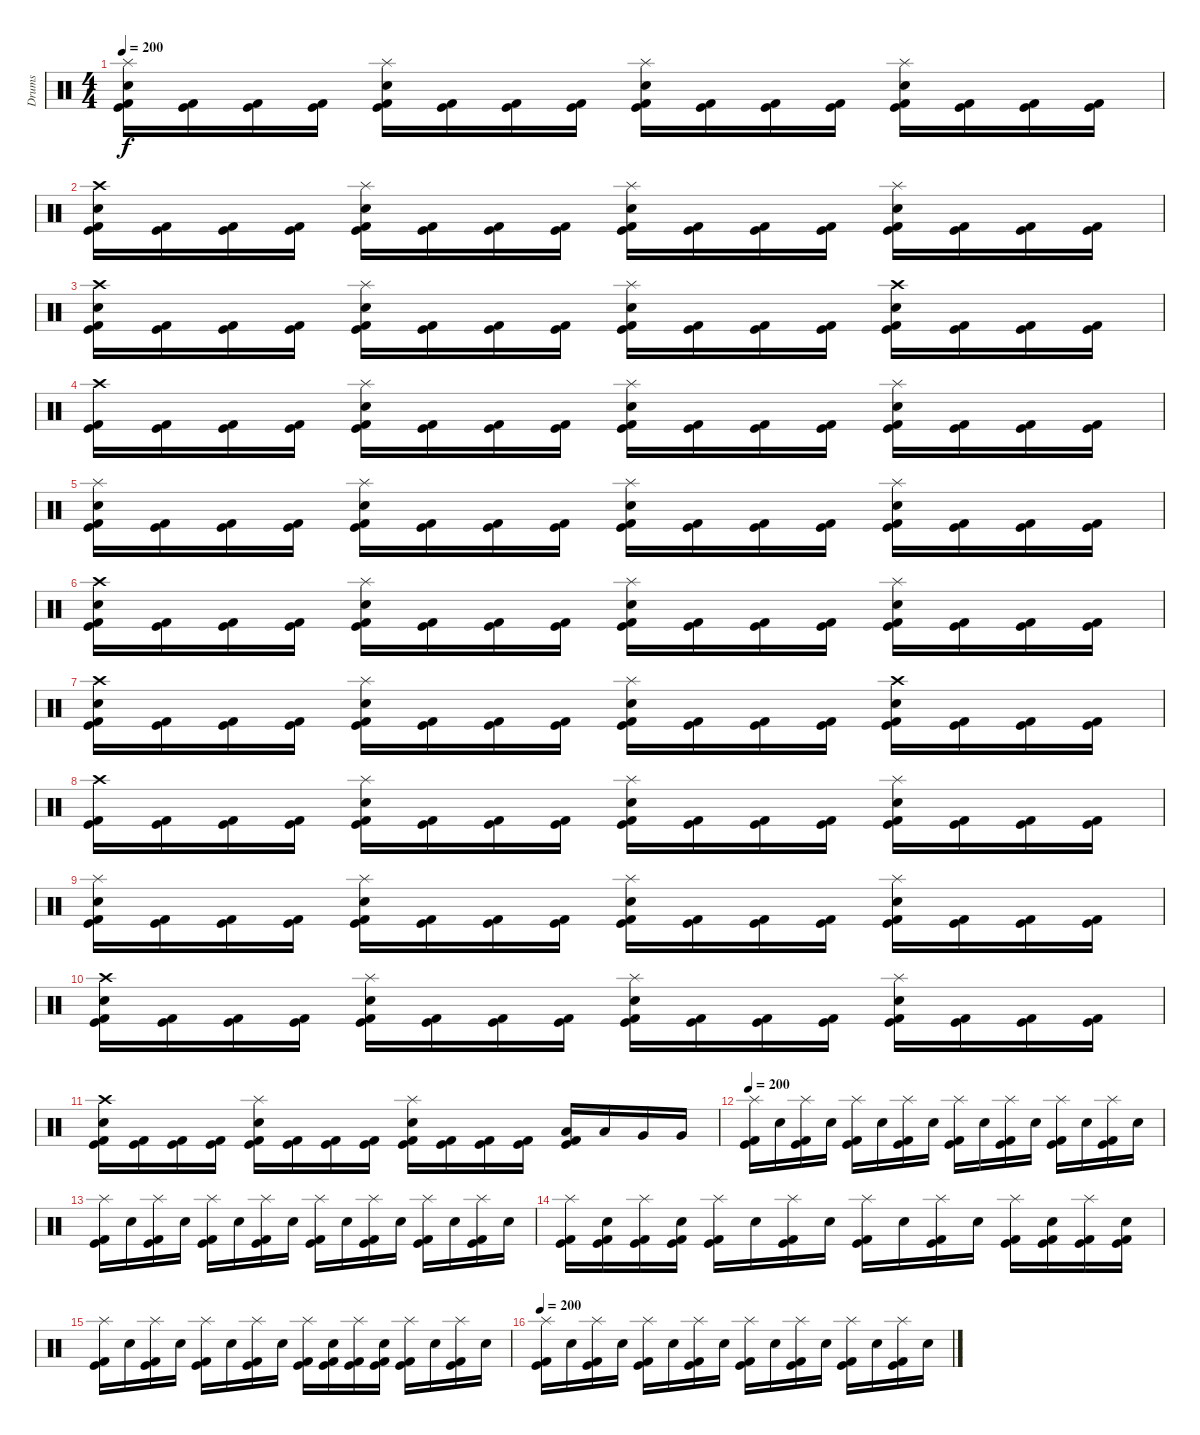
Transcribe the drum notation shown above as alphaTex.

\track ("Drums" "Drums") {instrument percussion}
\staff {score}
\articulation defaults
\ts (4 4)
\tempo 200
\clef neutral
\ks c
("Splash (hit)" "Electric Snare (hit)" "Kick (hit)" "Kick (hit) 2").16{dy f} ("Kick (hit)" "Kick (hit) 2").16 ("Kick (hit)" "Kick (hit) 2").16 ("Kick (hit)" "Kick (hit) 2").16 ("Splash (hit)" "Electric Snare (hit)" "Kick (hit)" "Kick (hit) 2").16 ("Kick (hit)" "Kick (hit) 2").16 ("Kick (hit)" "Kick (hit) 2").16 ("Kick (hit)" "Kick (hit) 2").16 ("Splash (hit)" "Electric Snare (hit)" "Kick (hit)" "Kick (hit) 2").16 ("Kick (hit)" "Kick (hit) 2").16 ("Kick (hit)" "Kick (hit) 2").16 ("Kick (hit)" "Kick (hit) 2").16 ("Splash (hit)" "Electric Snare (hit)" "Kick (hit)" "Kick (hit) 2").16 ("Kick (hit)" "Kick (hit) 2").16 ("Kick (hit)" "Kick (hit) 2").16 ("Kick (hit)" "Kick (hit) 2").16 |
("Crash high (hit)" "Electric Snare (hit)" "Kick (hit)" "Kick (hit) 2").16 ("Kick (hit)" "Kick (hit) 2").16 ("Kick (hit)" "Kick (hit) 2").16 ("Kick (hit)" "Kick (hit) 2").16 ("Splash (hit)" "Electric Snare (hit)" "Kick (hit)" "Kick (hit) 2").16 ("Kick (hit)" "Kick (hit) 2").16 ("Kick (hit)" "Kick (hit) 2").16 ("Kick (hit)" "Kick (hit) 2").16 ("Splash (hit)" "Electric Snare (hit)" "Kick (hit)" "Kick (hit) 2").16 ("Kick (hit)" "Kick (hit) 2").16 ("Kick (hit)" "Kick (hit) 2").16 ("Kick (hit)" "Kick (hit) 2").16 ("Splash (hit)" "Electric Snare (hit)" "Kick (hit)" "Kick (hit) 2").16 ("Kick (hit)" "Kick (hit) 2").16 ("Kick (hit)" "Kick (hit) 2").16 ("Kick (hit)" "Kick (hit) 2").16 |
("Crash high (hit)" "Electric Snare (hit)" "Kick (hit)" "Kick (hit) 2").16 ("Kick (hit)" "Kick (hit) 2").16 ("Kick (hit)" "Kick (hit) 2").16 ("Kick (hit)" "Kick (hit) 2").16 ("Splash (hit)" "Electric Snare (hit)" "Kick (hit)" "Kick (hit) 2").16 ("Kick (hit)" "Kick (hit) 2").16 ("Kick (hit)" "Kick (hit) 2").16 ("Kick (hit)" "Kick (hit) 2").16 ("Splash (hit)" "Electric Snare (hit)" "Kick (hit)" "Kick (hit) 2").16 ("Kick (hit)" "Kick (hit) 2").16 ("Kick (hit)" "Kick (hit) 2").16 ("Kick (hit)" "Kick (hit) 2").16 ("Crash high (hit)" "Electric Snare (hit)" "Kick (hit)" "Kick (hit) 2").16 ("Kick (hit)" "Kick (hit) 2").16 ("Kick (hit)" "Kick (hit) 2").16 ("Kick (hit)" "Kick (hit) 2").16 |
("Crash high (hit)" "Kick (hit)" "Kick (hit) 2").16 ("Kick (hit)" "Kick (hit) 2").16 ("Kick (hit)" "Kick (hit) 2").16 ("Kick (hit)" "Kick (hit) 2").16 ("Splash (hit)" "Electric Snare (hit)" "Kick (hit)" "Kick (hit) 2").16 ("Kick (hit)" "Kick (hit) 2").16 ("Kick (hit)" "Kick (hit) 2").16 ("Kick (hit)" "Kick (hit) 2").16 ("Splash (hit)" "Electric Snare (hit)" "Kick (hit)" "Kick (hit) 2").16 ("Kick (hit)" "Kick (hit) 2").16 ("Kick (hit)" "Kick (hit) 2").16 ("Kick (hit)" "Kick (hit) 2").16 ("Splash (hit)" "Electric Snare (hit)" "Kick (hit)" "Kick (hit) 2").16 ("Kick (hit)" "Kick (hit) 2").16 ("Kick (hit)" "Kick (hit) 2").16 ("Kick (hit)" "Kick (hit) 2").16 |
("Splash (hit)" "Electric Snare (hit)" "Kick (hit)" "Kick (hit) 2").16 ("Kick (hit)" "Kick (hit) 2").16 ("Kick (hit)" "Kick (hit) 2").16 ("Kick (hit)" "Kick (hit) 2").16 ("Splash (hit)" "Electric Snare (hit)" "Kick (hit)" "Kick (hit) 2").16 ("Kick (hit)" "Kick (hit) 2").16 ("Kick (hit)" "Kick (hit) 2").16 ("Kick (hit)" "Kick (hit) 2").16 ("Splash (hit)" "Electric Snare (hit)" "Kick (hit)" "Kick (hit) 2").16 ("Kick (hit)" "Kick (hit) 2").16 ("Kick (hit)" "Kick (hit) 2").16 ("Kick (hit)" "Kick (hit) 2").16 ("Splash (hit)" "Electric Snare (hit)" "Kick (hit)" "Kick (hit) 2").16 ("Kick (hit)" "Kick (hit) 2").16 ("Kick (hit)" "Kick (hit) 2").16 ("Kick (hit)" "Kick (hit) 2").16 |
("Crash high (hit)" "Electric Snare (hit)" "Kick (hit)" "Kick (hit) 2").16 ("Kick (hit)" "Kick (hit) 2").16 ("Kick (hit)" "Kick (hit) 2").16 ("Kick (hit)" "Kick (hit) 2").16 ("Splash (hit)" "Electric Snare (hit)" "Kick (hit)" "Kick (hit) 2").16 ("Kick (hit)" "Kick (hit) 2").16 ("Kick (hit)" "Kick (hit) 2").16 ("Kick (hit)" "Kick (hit) 2").16 ("Splash (hit)" "Electric Snare (hit)" "Kick (hit)" "Kick (hit) 2").16 ("Kick (hit)" "Kick (hit) 2").16 ("Kick (hit)" "Kick (hit) 2").16 ("Kick (hit)" "Kick (hit) 2").16 ("Splash (hit)" "Electric Snare (hit)" "Kick (hit)" "Kick (hit) 2").16 ("Kick (hit)" "Kick (hit) 2").16 ("Kick (hit)" "Kick (hit) 2").16 ("Kick (hit)" "Kick (hit) 2").16 |
("Crash high (hit)" "Electric Snare (hit)" "Kick (hit)" "Kick (hit) 2").16 ("Kick (hit)" "Kick (hit) 2").16 ("Kick (hit)" "Kick (hit) 2").16 ("Kick (hit)" "Kick (hit) 2").16 ("Splash (hit)" "Electric Snare (hit)" "Kick (hit)" "Kick (hit) 2").16 ("Kick (hit)" "Kick (hit) 2").16 ("Kick (hit)" "Kick (hit) 2").16 ("Kick (hit)" "Kick (hit) 2").16 ("Splash (hit)" "Electric Snare (hit)" "Kick (hit)" "Kick (hit) 2").16 ("Kick (hit)" "Kick (hit) 2").16 ("Kick (hit)" "Kick (hit) 2").16 ("Kick (hit)" "Kick (hit) 2").16 ("Crash high (hit)" "Electric Snare (hit)" "Kick (hit)" "Kick (hit) 2").16 ("Kick (hit)" "Kick (hit) 2").16 ("Kick (hit)" "Kick (hit) 2").16 ("Kick (hit)" "Kick (hit) 2").16 |
("Crash high (hit)" "Kick (hit)" "Kick (hit) 2").16 ("Kick (hit)" "Kick (hit) 2").16 ("Kick (hit)" "Kick (hit) 2").16 ("Kick (hit)" "Kick (hit) 2").16 ("Splash (hit)" "Electric Snare (hit)" "Kick (hit)" "Kick (hit) 2").16 ("Kick (hit)" "Kick (hit) 2").16 ("Kick (hit)" "Kick (hit) 2").16 ("Kick (hit)" "Kick (hit) 2").16 ("Splash (hit)" "Electric Snare (hit)" "Kick (hit)" "Kick (hit) 2").16 ("Kick (hit)" "Kick (hit) 2").16 ("Kick (hit)" "Kick (hit) 2").16 ("Kick (hit)" "Kick (hit) 2").16 ("Splash (hit)" "Electric Snare (hit)" "Kick (hit)" "Kick (hit) 2").16 ("Kick (hit)" "Kick (hit) 2").16 ("Kick (hit)" "Kick (hit) 2").16 ("Kick (hit)" "Kick (hit) 2").16 |
("Splash (hit)" "Electric Snare (hit)" "Kick (hit)" "Kick (hit) 2").16 ("Kick (hit)" "Kick (hit) 2").16 ("Kick (hit)" "Kick (hit) 2").16 ("Kick (hit)" "Kick (hit) 2").16 ("Splash (hit)" "Electric Snare (hit)" "Kick (hit)" "Kick (hit) 2").16 ("Kick (hit)" "Kick (hit) 2").16 ("Kick (hit)" "Kick (hit) 2").16 ("Kick (hit)" "Kick (hit) 2").16 ("Splash (hit)" "Electric Snare (hit)" "Kick (hit)" "Kick (hit) 2").16 ("Kick (hit)" "Kick (hit) 2").16 ("Kick (hit)" "Kick (hit) 2").16 ("Kick (hit)" "Kick (hit) 2").16 ("Splash (hit)" "Electric Snare (hit)" "Kick (hit)" "Kick (hit) 2").16 ("Kick (hit)" "Kick (hit) 2").16 ("Kick (hit)" "Kick (hit) 2").16 ("Kick (hit)" "Kick (hit) 2").16 |
("Crash high (hit)" "Electric Snare (hit)" "Kick (hit)" "Kick (hit) 2").16 ("Kick (hit)" "Kick (hit) 2").16 ("Kick (hit)" "Kick (hit) 2").16 ("Kick (hit)" "Kick (hit) 2").16 ("Splash (hit)" "Electric Snare (hit)" "Kick (hit)" "Kick (hit) 2").16 ("Kick (hit)" "Kick (hit) 2").16 ("Kick (hit)" "Kick (hit) 2").16 ("Kick (hit)" "Kick (hit) 2").16 ("Splash (hit)" "Electric Snare (hit)" "Kick (hit)" "Kick (hit) 2").16 ("Kick (hit)" "Kick (hit) 2").16 ("Kick (hit)" "Kick (hit) 2").16 ("Kick (hit)" "Kick (hit) 2").16 ("Splash (hit)" "Electric Snare (hit)" "Kick (hit)" "Kick (hit) 2").16 ("Kick (hit)" "Kick (hit) 2").16 ("Kick (hit)" "Kick (hit) 2").16 ("Kick (hit)" "Kick (hit) 2").16 |
("Crash high (hit)" "Electric Snare (hit)" "Kick (hit)" "Kick (hit) 2").16 ("Kick (hit)" "Kick (hit) 2").16 ("Kick (hit)" "Kick (hit) 2").16 ("Kick (hit)" "Kick (hit) 2").16 ("Splash (hit)" "Electric Snare (hit)" "Kick (hit)" "Kick (hit) 2").16 ("Kick (hit)" "Kick (hit) 2").16 ("Kick (hit)" "Kick (hit) 2").16 ("Kick (hit)" "Kick (hit) 2").16 ("Splash (hit)" "Electric Snare (hit)" "Kick (hit)" "Kick (hit) 2").16 ("Kick (hit)" "Kick (hit) 2").16 ("Kick (hit)" "Kick (hit) 2").16 ("Kick (hit)" "Kick (hit) 2").16 ("Low Tom (hit)" "Kick (hit)" "Kick (hit) 2").16 "Low Tom (hit)".16 "Very Low Tom (hit)".16 "Very Low Tom (hit)".16 |
\tempo 200
("Splash (hit)" "Kick (hit)" "Kick (hit) 2").16 "Electric Snare (hit)".16 ("Splash (hit)" "Kick (hit)" "Kick (hit) 2").16 "Electric Snare (hit)".16 ("Splash (hit)" "Kick (hit)" "Kick (hit) 2").16 "Electric Snare (hit)".16 ("Splash (hit)" "Kick (hit)" "Kick (hit) 2").16 "Electric Snare (hit)".16 ("Splash (hit)" "Kick (hit)" "Kick (hit) 2").16 "Electric Snare (hit)".16 ("Splash (hit)" "Kick (hit)" "Kick (hit) 2").16 "Electric Snare (hit)".16 ("Splash (hit)" "Kick (hit)" "Kick (hit) 2").16 "Electric Snare (hit)".16 ("Splash (hit)" "Kick (hit)" "Kick (hit) 2").16 "Electric Snare (hit)".16 |
("Splash (hit)" "Kick (hit)" "Kick (hit) 2").16 "Electric Snare (hit)".16 ("Splash (hit)" "Kick (hit)" "Kick (hit) 2").16 "Electric Snare (hit)".16 ("Splash (hit)" "Kick (hit)" "Kick (hit) 2").16 "Electric Snare (hit)".16 ("Splash (hit)" "Kick (hit)" "Kick (hit) 2").16 "Electric Snare (hit)".16 ("Splash (hit)" "Kick (hit)" "Kick (hit) 2").16 "Electric Snare (hit)".16 ("Splash (hit)" "Kick (hit)" "Kick (hit) 2").16 "Electric Snare (hit)".16 ("Splash (hit)" "Kick (hit)" "Kick (hit) 2").16 "Electric Snare (hit)".16 ("Splash (hit)" "Kick (hit)" "Kick (hit) 2").16 "Electric Snare (hit)".16 |
("Splash (hit)" "Kick (hit)" "Kick (hit) 2").16 ("Electric Snare (hit)" "Kick (hit)" "Kick (hit) 2").16 ("Splash (hit)" "Kick (hit)" "Kick (hit) 2").16 ("Electric Snare (hit)" "Kick (hit)" "Kick (hit) 2").16 ("Splash (hit)" "Kick (hit)" "Kick (hit) 2").16 "Electric Snare (hit)".16 ("Splash (hit)" "Kick (hit)" "Kick (hit) 2").16 "Electric Snare (hit)".16 ("Splash (hit)" "Kick (hit)" "Kick (hit) 2").16 "Electric Snare (hit)".16 ("Splash (hit)" "Kick (hit)" "Kick (hit) 2").16 "Electric Snare (hit)".16 ("Splash (hit)" "Kick (hit)" "Kick (hit) 2").16 ("Electric Snare (hit)" "Kick (hit)" "Kick (hit) 2").16 ("Splash (hit)" "Kick (hit)" "Kick (hit) 2").16 ("Electric Snare (hit)" "Kick (hit)" "Kick (hit) 2").16 |
("Splash (hit)" "Kick (hit)" "Kick (hit) 2").16 "Electric Snare (hit)".16 ("Splash (hit)" "Kick (hit)" "Kick (hit) 2").16 "Electric Snare (hit)".16 ("Splash (hit)" "Kick (hit)" "Kick (hit) 2").16 "Electric Snare (hit)".16 ("Splash (hit)" "Kick (hit)" "Kick (hit) 2").16 "Electric Snare (hit)".16 ("Splash (hit)" "Kick (hit)" "Kick (hit) 2").16 ("Electric Snare (hit)" "Kick (hit)" "Kick (hit) 2").16 ("Splash (hit)" "Kick (hit)" "Kick (hit) 2").16 ("Electric Snare (hit)" "Kick (hit)" "Kick (hit) 2").16 ("Splash (hit)" "Kick (hit)" "Kick (hit) 2").16 "Electric Snare (hit)".16 ("Splash (hit)" "Kick (hit)" "Kick (hit) 2").16 "Electric Snare (hit)".16 |
\tempo 200
("Splash (hit)" "Kick (hit)" "Kick (hit) 2").16 "Electric Snare (hit)".16 ("Splash (hit)" "Kick (hit)" "Kick (hit) 2").16 "Electric Snare (hit)".16 ("Splash (hit)" "Kick (hit)" "Kick (hit) 2").16 "Electric Snare (hit)".16 ("Splash (hit)" "Kick (hit)" "Kick (hit) 2").16 "Electric Snare (hit)".16 ("Splash (hit)" "Kick (hit)" "Kick (hit) 2").16 "Electric Snare (hit)".16 ("Splash (hit)" "Kick (hit)" "Kick (hit) 2").16 "Electric Snare (hit)".16 ("Splash (hit)" "Kick (hit)" "Kick (hit) 2").16 "Electric Snare (hit)".16 ("Splash (hit)" "Kick (hit)" "Kick (hit) 2").16 "Electric Snare (hit)".16
